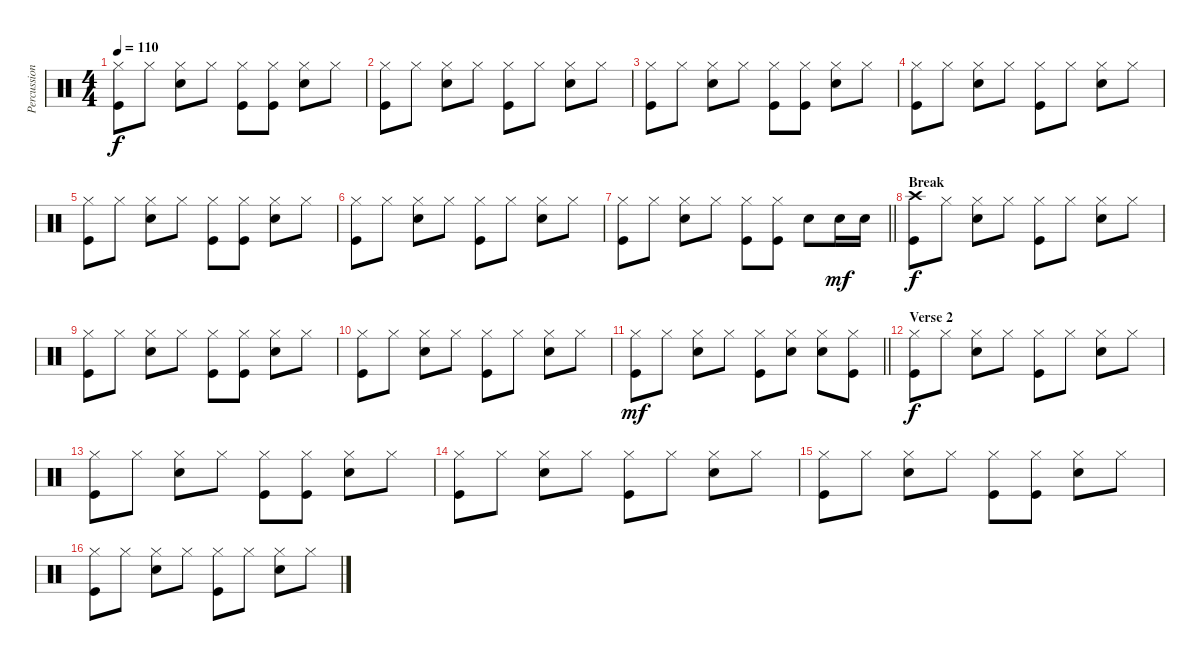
\track ("Percussion" "Percussion") {instrument percussion}
\staff {score}
\articulation defaults
\ts (4 4)
\tempo 110
\clef neutral
\ks c
("Hi-Hat (closed)" "Kick (hit)").8{dy f} "Hi-Hat (closed)".8 ("Hi-Hat (closed)" "Snare (hit) 2").8 "Hi-Hat (closed)".8 ("Hi-Hat (closed)" "Kick (hit)").8 ("Hi-Hat (closed)" "Kick (hit)").8 ("Hi-Hat (closed)" "Snare (hit) 2").8 "Hi-Hat (closed)".8 |
("Hi-Hat (closed)" "Kick (hit)").8 "Hi-Hat (closed)".8 ("Hi-Hat (closed)" "Snare (hit) 2").8 "Hi-Hat (closed)".8 ("Hi-Hat (closed)" "Kick (hit)").8 "Hi-Hat (closed)".8 ("Hi-Hat (closed)" "Snare (hit) 2").8 "Hi-Hat (closed)".8 |
("Hi-Hat (closed)" "Kick (hit)").8 "Hi-Hat (closed)".8 ("Hi-Hat (closed)" "Snare (hit) 2").8 "Hi-Hat (closed)".8 ("Hi-Hat (closed)" "Kick (hit)").8 ("Hi-Hat (closed)" "Kick (hit)").8 ("Hi-Hat (closed)" "Snare (hit) 2").8 "Hi-Hat (closed)".8 |
("Hi-Hat (closed)" "Kick (hit)").8 "Hi-Hat (closed)".8 ("Hi-Hat (closed)" "Snare (hit) 2").8 "Hi-Hat (closed)".8 ("Hi-Hat (closed)" "Kick (hit)").8 "Hi-Hat (closed)".8 ("Hi-Hat (closed)" "Snare (hit) 2").8 "Hi-Hat (closed)".8 |
("Hi-Hat (closed)" "Kick (hit)").8 "Hi-Hat (closed)".8 ("Hi-Hat (closed)" "Snare (hit) 2").8 "Hi-Hat (closed)".8 ("Hi-Hat (closed)" "Kick (hit)").8 ("Hi-Hat (closed)" "Kick (hit)").8 ("Hi-Hat (closed)" "Snare (hit) 2").8 "Hi-Hat (closed)".8 |
("Hi-Hat (closed)" "Kick (hit)").8 "Hi-Hat (closed)".8 ("Hi-Hat (closed)" "Snare (hit) 2").8 "Hi-Hat (closed)".8 ("Hi-Hat (closed)" "Kick (hit)").8 "Hi-Hat (closed)".8 ("Hi-Hat (closed)" "Snare (hit) 2").8 "Hi-Hat (closed)".8 |
\barLineRight lightlight
("Hi-Hat (closed)" "Kick (hit)").8 "Hi-Hat (closed)".8 ("Hi-Hat (closed)" "Snare (hit) 2").8 "Hi-Hat (closed)".8 ("Hi-Hat (closed)" "Kick (hit)").8 ("Hi-Hat (closed)" "Kick (hit)").8 "Snare (hit) 2".8 "Snare (hit) 2".16{dy mf} "Snare (hit) 2".16 |
\section ("" "Break")
("Crash high (hit)" "Kick (hit)").8{dy f} "Hi-Hat (closed)".8 ("Hi-Hat (closed)" "Snare (hit) 2").8 "Hi-Hat (closed)".8 ("Hi-Hat (closed)" "Kick (hit)").8 "Hi-Hat (closed)".8 ("Hi-Hat (closed)" "Snare (hit) 2").8 "Hi-Hat (closed)".8 |
("Hi-Hat (closed)" "Kick (hit)").8 "Hi-Hat (closed)".8 ("Hi-Hat (closed)" "Snare (hit) 2").8 "Hi-Hat (closed)".8 ("Hi-Hat (closed)" "Kick (hit)").8 ("Hi-Hat (closed)" "Kick (hit)").8 ("Hi-Hat (closed)" "Snare (hit) 2").8 "Hi-Hat (closed)".8 |
("Hi-Hat (closed)" "Kick (hit)").8 "Hi-Hat (closed)".8 ("Hi-Hat (closed)" "Snare (hit) 2").8 "Hi-Hat (closed)".8 ("Hi-Hat (closed)" "Kick (hit)").8 "Hi-Hat (closed)".8 ("Hi-Hat (closed)" "Snare (hit) 2").8 "Hi-Hat (closed)".8 |
\barLineRight lightlight
("Hi-Hat (closed)" "Kick (hit)").8{dy mf} "Hi-Hat (closed)".8 ("Hi-Hat (closed)" "Snare (hit) 2").8 "Hi-Hat (closed)".8 ("Hi-Hat (closed)" "Kick (hit)").8 ("Hi-Hat (closed)" "Snare (hit) 2").8 ("Hi-Hat (closed)" "Snare (hit) 2").8 ("Hi-Hat (closed)" "Kick (hit)").8 |
\section ("" "Verse 2")
("Hi-Hat (closed)" "Kick (hit)").8{dy f} "Hi-Hat (closed)".8 ("Hi-Hat (closed)" "Snare (hit) 2").8 "Hi-Hat (closed)".8 ("Hi-Hat (closed)" "Kick (hit)").8 "Hi-Hat (closed)".8 ("Hi-Hat (closed)" "Snare (hit) 2").8 "Hi-Hat (closed)".8 |
("Hi-Hat (closed)" "Kick (hit)").8 "Hi-Hat (closed)".8 ("Hi-Hat (closed)" "Snare (hit) 2").8 "Hi-Hat (closed)".8 ("Hi-Hat (closed)" "Kick (hit)").8 ("Hi-Hat (closed)" "Kick (hit)").8 ("Hi-Hat (closed)" "Snare (hit) 2").8 "Hi-Hat (closed)".8 |
("Hi-Hat (closed)" "Kick (hit)").8 "Hi-Hat (closed)".8 ("Hi-Hat (closed)" "Snare (hit) 2").8 "Hi-Hat (closed)".8 ("Hi-Hat (closed)" "Kick (hit)").8 "Hi-Hat (closed)".8 ("Hi-Hat (closed)" "Snare (hit) 2").8 "Hi-Hat (closed)".8 |
("Hi-Hat (closed)" "Kick (hit)").8 "Hi-Hat (closed)".8 ("Hi-Hat (closed)" "Snare (hit) 2").8 "Hi-Hat (closed)".8 ("Hi-Hat (closed)" "Kick (hit)").8 ("Hi-Hat (closed)" "Kick (hit)").8 ("Hi-Hat (closed)" "Snare (hit) 2").8 "Hi-Hat (closed)".8 |
("Hi-Hat (closed)" "Kick (hit)").8 "Hi-Hat (closed)".8 ("Hi-Hat (closed)" "Snare (hit) 2").8 "Hi-Hat (closed)".8 ("Hi-Hat (closed)" "Kick (hit)").8 "Hi-Hat (closed)".8 ("Hi-Hat (closed)" "Snare (hit) 2").8 "Hi-Hat (closed)".8
